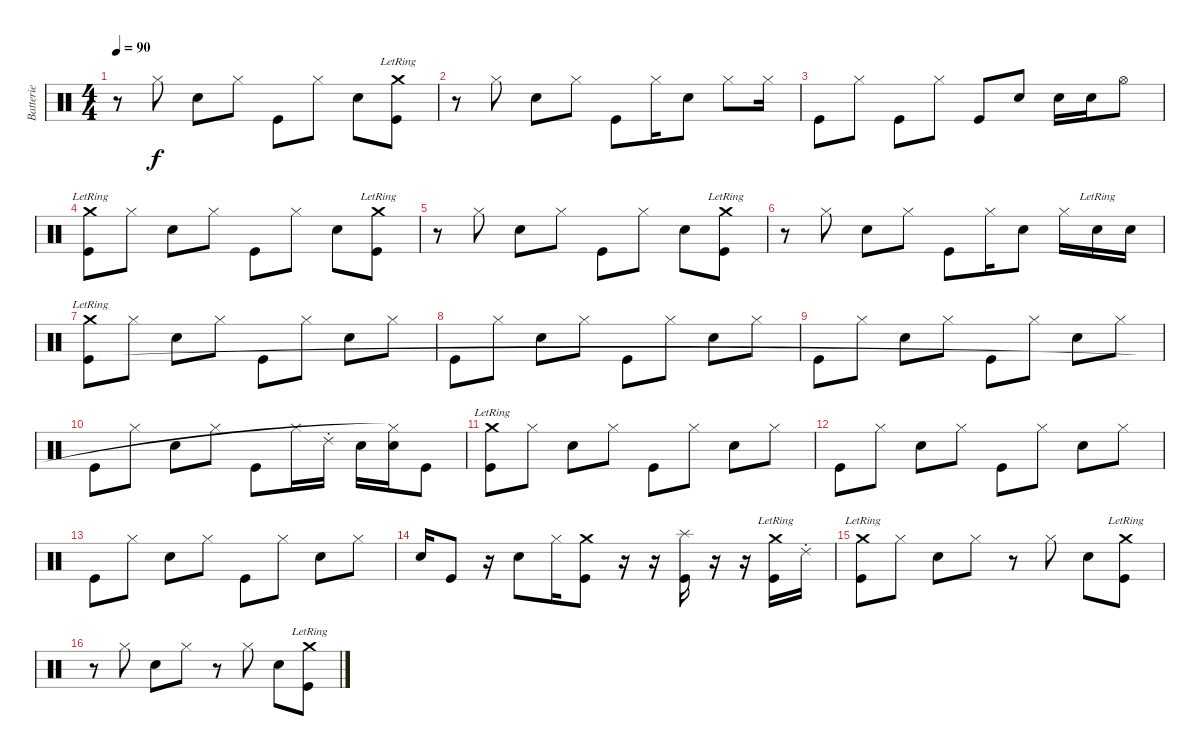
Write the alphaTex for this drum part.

\track ("Batterie" "Batterie") {instrument percussion}
\staff {score}
\articulation defaults
\ts (4 4)
\tempo 90
\clef neutral
\ks c
r.8{dy f} "Hi-Hat (closed)".8 "Metronome (bell)".8 "Hi-Hat (closed)".8 "Kick (hit)".8 "Hi-Hat (closed)".8 "Metronome (bell)".8 ("Crash medium (hit)"{lr} "Kick (hit)").8 |
r.8 "Hi-Hat (closed)".8 "Metronome (bell)".8 "Hi-Hat (closed)".8 "Kick (hit)".8 "Hi-Hat (closed)".16 "Metronome (bell)".8 "Hi-Hat (closed)".8 "Hi-Hat (closed)".16 |
"Kick (hit)".8 "Hi-Hat (closed)".8 "Kick (hit)".8 "Hi-Hat (closed)".8 "Kick (hit)".8 "Metronome (bell)".8 "Metronome (bell)".16 "Metronome (bell)".16 "Hi-Hat (open)".8 |
("Crash medium (hit)"{lr} "Kick (hit)").8 "Hi-Hat (closed)".8 "Metronome (bell)".8 "Hi-Hat (closed)".8 "Kick (hit)".8 "Hi-Hat (closed)".8 "Metronome (bell)".8 ("Crash medium (hit)"{lr} "Kick (hit)").8 |
r.8 "Hi-Hat (closed)".8 "Metronome (bell)".8 "Hi-Hat (closed)".8 "Kick (hit)".8 "Hi-Hat (closed)".8 "Metronome (bell)".8 ("Crash medium (hit)"{lr} "Kick (hit)").8 |
r.8 "Hi-Hat (closed)".8 "Metronome (bell)".8 "Hi-Hat (closed)".8 "Kick (hit)".8 "Hi-Hat (closed)".16 "Metronome (bell)".8 "Hi-Hat (closed)".16 "Metronome (bell)"{lr}.16 "Metronome (bell)".16 |
("Crash medium (hit)"{lr} "Kick (hit)").8 "Hi-Hat (closed)".8 "Metronome (bell)".8 "Hi-Hat (closed)".8 "Kick (hit)".8 "Hi-Hat (closed)".8 "Metronome (bell)".8 "Hi-Hat (closed)".8 |
"Kick (hit)".8 "Hi-Hat (closed)".8 "Metronome (bell)".8 "Hi-Hat (closed)".8 "Kick (hit)".8 "Hi-Hat (closed)".8 "Metronome (bell)".8 "Hi-Hat (closed)".8 |
"Kick (hit)".8 "Hi-Hat (closed)".8 "Metronome (bell)".8 "Hi-Hat (closed)".8 "Kick (hit)".8 "Hi-Hat (closed)".8 "Metronome (bell)".8 "Hi-Hat (closed)".8 |
"Kick (hit)".8 "Hi-Hat (closed)".8 "Metronome (bell)".8 "Hi-Hat (closed)".8 "Kick (hit)".8 "Hi-Hat (closed)".16 "Ride (choke) 2".16 "Metronome (bell)".16 ("Metronome (bell)" "Hi-Hat (closed)"{t}).16 "Kick (hit)".8 |
("Crash medium (hit)"{lr} "Kick (hit)").8 "Hi-Hat (closed)".8 "Metronome (bell)".8 "Hi-Hat (closed)".8 "Kick (hit)".8 "Hi-Hat (closed)".8 "Metronome (bell)".8 "Hi-Hat (closed)".8 |
"Kick (hit)".8 "Hi-Hat (closed)".8 "Metronome (bell)".8 "Hi-Hat (closed)".8 "Kick (hit)".8 "Hi-Hat (closed)".8 "Metronome (bell)".8 "Hi-Hat (closed)".8 |
"Kick (hit)".8 "Hi-Hat (closed)".8 "Metronome (bell)".8 "Hi-Hat (closed)".8 "Kick (hit)".8 "Hi-Hat (closed)".8 "Metronome (bell)".8 "Hi-Hat (closed)".8 |
"Metronome (bell)".16 "Kick (hit)".8 r.16 "Metronome (bell)".8 "Hi-Hat (closed)".16 ("Crash medium (hit)" "Kick (hit)").8 r.16 r.16 ("Splash (hit)" "Kick (hit)").16 r.16 r.16 ("Crash medium (hit)"{lr} "Kick (hit)").16 "Ride (choke) 2".16 |
("Crash medium (hit)"{lr} "Kick (hit)").8 "Hi-Hat (closed)".8 "Metronome (bell)".8 "Hi-Hat (closed)".8 r.8 "Hi-Hat (closed)".8 "Metronome (bell)".8 ("Crash medium (hit)"{lr} "Kick (hit)").8 |
r.8 "Hi-Hat (closed)".8 "Metronome (bell)".8 "Hi-Hat (closed)".8 r.8 "Hi-Hat (closed)".8 "Metronome (bell)".8 ("Crash medium (hit)"{lr} "Kick (hit)").8
